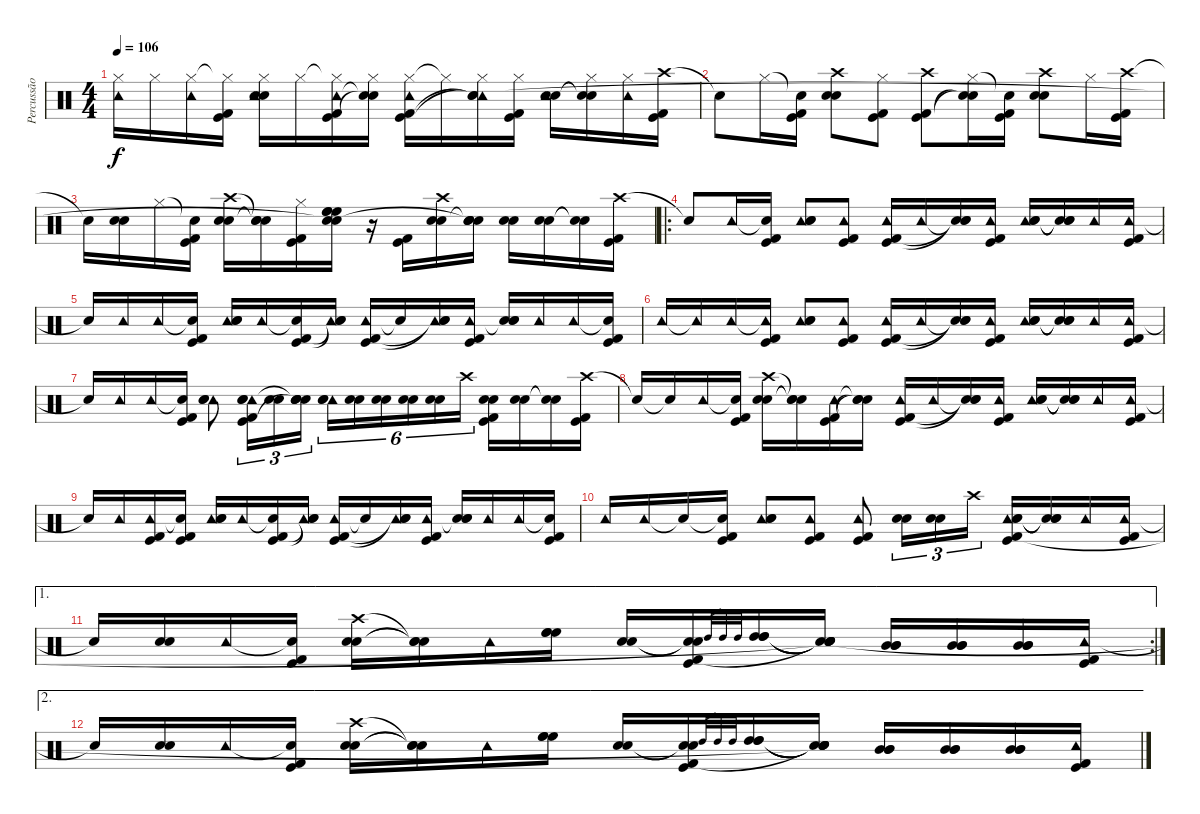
\track ("Percussão" "Percussão") {instrument percussion}
\staff {score}
\articulation defaults
\ts (4 4)
\tempo 106
\clef neutral
\ks c
("Hi-Hat (closed)"{t} "Tambourine (hit)").16{dy f} "Hi-Hat (closed)".16 ("Hi-Hat (closed)" "Tambourine (hit)").16 ("Hi-Hat (closed)"{t} "Kick (hit)" "Kick (hit) 2").16 ("Hi-Hat (closed)" "Electric Snare (hit)" "Snare (hit) 2" "Tambourine (hit)").16 "Hi-Hat (closed)".16 ("Hi-Hat (closed)"{t} "Tambourine (hit)" "Kick (hit)" "Kick (hit) 2").16 ("Hi-Hat (closed)" "Snare (hit)"{t} "Snare (hit)"{t}).16 ("Hi-Hat (closed)" "Tambourine (hit)" "Kick (hit)" "Kick (hit) 2").16 "Hi-Hat (closed)"{t}.16 ("Hi-Hat (closed)" "Tambourine (hit)" "Snare (hit)"{t} "Snare (hit)"{t}).16 ("Hi-Hat (closed)" "Kick (hit) 2" "Kick (hit)").16 ("Electric Snare (hit)" "Snare (hit) 2" "Tambourine (hit)").16 ("Hi-Hat (closed)" "Snare (hit)"{t} "Snare (hit)"{t}).16 ("Hi-Hat (closed)" "Tambourine (hit)").16 ("Crash high (hit)" "Kick (hit)" "Kick (hit) 2").16 |
"Snare (hit)"{t}.8 "Hi-Hat (closed)".16 ("Snare (hit)"{t} "Kick (hit)" "Kick (hit) 2").16 ("Crash high (hit)" "Electric Snare (hit)" "Snare (hit) 2").8 ("Hi-Hat (closed)" "Kick (hit) 2" "Kick (hit)").8 ("Crash high (hit)" "Kick (hit) 2" "Kick (hit)").8 ("Hi-Hat (closed)" "Snare (hit)"{t} "Snare (hit)"{t}).16 ("Snare (hit)"{t} "Kick (hit) 2" "Kick (hit)").16 ("Crash high (hit)" "Electric Snare (hit)" "Snare (hit) 2").8 "Hi-Hat (closed)".16 ("Crash high (hit)" "Kick (hit)" "Kick (hit) 2").16 |
"Snare (hit)"{t}.16 ("Electric Snare (hit)" "Snare (hit) 2").16 "Hi-Hat (closed)".16 ("Snare (hit)"{t} "Kick (hit) 2" "Kick (hit)").16 ("Crash high (hit)" "Electric Snare (hit)" "Snare (hit) 2").16 ("Snare (hit)"{t} "Snare (hit)"{t} "Snare (hit)"{t}).16 ("Hi-Hat (closed)" "Kick (hit)" "Kick (hit) 2").16 ("High Floor Tom (hit)" "High Floor Tom (hit)" "High Floor Tom (hit)" "Snare (hit)"{t} "Snare (hit)").16 r.16 ("Kick (hit) 2" "Kick (hit)").16 ("Crash high (hit)" "Electric Snare (hit)" "Snare (hit) 2").16 ("Electric Snare (hit)" "Snare (hit) 2" "Snare (hit)"{t} "Snare (hit)"{t}).16 ("Electric Snare (hit)" "Snare (hit) 2").16 ("Electric Snare (hit)" "Snare (hit) 2").16 ("Snare (hit)"{t} "Snare (hit)"{t}).16 ("Crash high (hit)" "Kick (hit) 2" "Kick (hit)").16 |
\ro "Snare (hit)"{t}.8 "Tambourine (hit)".16
("Snare (hit)"{t} "Kick (hit)" "Kick (hit) 2").16 ("Tambourine (hit)" "Electric Snare (hit)" "Snare (hit) 2").8 ("Tambourine (hit)" "Kick (hit)" "Kick (hit) 2").8 ("Tambourine (hit)" "Kick (hit) 2" "Kick (hit)").16 "Tambourine (hit)".16 ("Snare (hit)"{t} "Snare (hit)"{t} "Snare (hit)"{t}).16 ("Tambourine (hit)" "Kick (hit) 2" "Kick (hit)").16 ("Tambourine (hit)" "Electric Snare (hit)" "Snare (hit) 2").16 ("Snare (hit)"{t} "Snare (hit)"{t} "Snare (hit)"{t}).16 "Tambourine (hit)".16 ("Tambourine (hit)" "Kick (hit)" "Kick (hit) 2").16 |
"Snare (hit)"{t}.16 "Tambourine (hit)".16 "Tambourine (hit)".16 ("Snare (hit)"{t} "Kick (hit)" "Kick (hit) 2").16 ("Tambourine (hit)" "Electric Snare (hit)" "Snare (hit) 2").16 "Tambourine (hit)".16 ("Snare (hit)"{t} "Kick (hit) 2" "Kick (hit)").16 ("Tambourine (hit)" "Snare (hit)"{t} "Snare (hit)"{t}).16 ("Tambourine (hit)" "Kick (hit)" "Kick (hit) 2").16 "Snare (hit)"{t}.16 ("Tambourine (hit)" "Snare (hit)"{t} "Snare (hit)"{t}).16 ("Tambourine (hit)" "Kick (hit) 2" "Kick (hit)").16 ("Snare (hit)"{t} "Electric Snare (hit)" "Snare (hit) 2").16 "Tambourine (hit)".16 "Tambourine (hit)".16 ("Snare (hit)"{t} "Kick (hit) 2" "Kick (hit)").16 |
"Tambourine (hit)".16 "Tambourine (hit)"{t}.16 "Tambourine (hit)".16 ("Tambourine (hit)"{t} "Kick (hit)" "Kick (hit) 2").16 ("Tambourine (hit)" "Electric Snare (hit)" "Snare (hit) 2").8 ("Tambourine (hit)" "Kick (hit)" "Kick (hit) 2").8 ("Tambourine (hit)" "Kick (hit)" "Kick (hit) 2").16 "Tambourine (hit)".16 ("Snare (hit)"{t} "Snare (hit)"{t} "Snare (hit)"{t}).16 ("Tambourine (hit)" "Kick (hit) 2" "Kick (hit)").16 ("Tambourine (hit)" "Electric Snare (hit)" "Snare (hit) 2").16 ("Snare (hit)"{t} "Snare (hit)"{t} "Snare (hit)"{t}).16 "Tambourine (hit)".16 ("Tambourine (hit)" "Kick (hit)" "Kick (hit) 2").16 |
"Snare (hit)"{t}.16 "Tambourine (hit)".16 "Tambourine (hit)".16 ("Snare (hit)"{t} "Kick (hit) 2" "Kick (hit)").16 ("Tambourine (hit)" "Electric Snare (hit)" "Snare (hit) 2").8 ("Tambourine (hit)" "Electric Snare (hit)" "Snare (hit) 2" "Kick (hit)" "Kick (hit) 2").16{tu (3 2)} ("Electric Snare (hit)" "Snare (hit) 2").16{tu (3 2)} ("Electric Snare (hit)" "Snare (hit) 2" "Snare (hit)"{t} "Snare (hit)"{t}).16{tu (3 2)} ("Tambourine (hit)" "Electric Snare (hit)" "Snare (hit) 2").16{tu (6 4)} ("Electric Snare (hit)" "Snare (hit) 2").16{tu (6 4)} ("Electric Snare (hit)" "Snare (hit) 2").16{tu (6 4)} ("Electric Snare (hit)" "Snare (hit) 2").16{tu (6 4)} ("Electric Snare (hit)" "Snare (hit) 2").16{tu (6 4)} "Crash high (hit)".16{tu (6 4)} ("Electric Snare (hit)" "Snare (hit) 2" "Kick (hit)" "Kick (hit) 2").16 ("Electric Snare (hit)" "Snare (hit) 2").16 ("Snare (hit)"{t} "Snare (hit)"{t}).16 ("Crash high (hit)" "Kick (hit) 2" "Kick (hit)").16 |
"Snare (hit)"{t}.16 "Snare (hit)"{t}.16 "Tambourine (hit)".16 ("Snare (hit)"{t} "Kick (hit)" "Kick (hit) 2").16 ("Crash high (hit)" "Electric Snare (hit)" "Snare (hit) 2").16 ("Snare (hit)"{t} "Snare (hit)"{t} "Snare (hit)"{t}).16 ("Tambourine (hit)" "Kick (hit) 2" "Kick (hit)").16 ("Snare (hit)"{t} "Snare (hit)"{t} "Snare (hit)"{t}).16 ("Tambourine (hit)" "Kick (hit)" "Kick (hit) 2").16 "Tambourine (hit)".16 ("Snare (hit)"{t} "Snare (hit)"{t} "Snare (hit)"{t}).16 ("Tambourine (hit)" "Kick (hit) 2" "Kick (hit)").16 ("Tambourine (hit)" "Electric Snare (hit)" "Snare (hit) 2").16 ("Snare (hit)"{t} "Snare (hit)"{t} "Snare (hit)"{t}).16 "Tambourine (hit)".16 ("Tambourine (hit)" "Kick (hit)" "Kick (hit) 2").16 |
"Snare (hit)"{t}.16 "Tambourine (hit)".16 ("Tambourine (hit)" "Kick (hit)" "Kick (hit) 2").16 ("Snare (hit)"{t} "Kick (hit)" "Kick (hit) 2").16 ("Tambourine (hit)" "Electric Snare (hit)" "Snare (hit) 2").16 "Tambourine (hit)".16 ("Snare (hit)"{t} "Kick (hit) 2" "Kick (hit)").16 ("Tambourine (hit)" "Snare (hit)"{t} "Snare (hit)"{t}).16 ("Tambourine (hit)" "Kick (hit)" "Kick (hit) 2").16 "Snare (hit)"{t}.16 ("Tambourine (hit)" "Snare (hit)"{t} "Snare (hit)"{t}).16 ("Tambourine (hit)" "Kick (hit)" "Kick (hit) 2").16 ("Snare (hit)"{t} "Electric Snare (hit)" "Snare (hit) 2").16 "Tambourine (hit)".16 "Tambourine (hit)".16 ("Snare (hit)"{t} "Kick (hit)" "Kick (hit) 2").16 |
"Tambourine (hit)".16 "Tambourine (hit)".16 "Snare (hit)"{t}.16 ("Snare (hit)"{t} "Kick (hit)" "Kick (hit) 2").16 ("Tambourine (hit)" "Electric Snare (hit)" "Snare (hit) 2").8 ("Tambourine (hit)" "Kick (hit) 2" "Kick (hit)").8 ("Tambourine (hit)" "Kick (hit) 2" "Kick (hit)").8 ("Electric Snare (hit)" "Snare (hit) 2").16{tu (3 2)} ("Electric Snare (hit)" "Snare (hit) 2").16{tu (3 2)} "Crash high (hit)".16{tu (3 2)} ("Tambourine (hit)" "Electric Snare (hit)" "Snare (hit) 2" "Kick (hit)" "Kick (hit) 2").16 ("Snare (hit)"{t} "Snare (hit)"{t} "Snare (hit)"{t}).16 "Tambourine (hit)".16 ("Tambourine (hit)" "Kick (hit)" "Kick (hit) 2").16 |
\ae 1
\rc 2 "Snare (hit)"{t}.16
("Electric Snare (hit)" "Snare (hit) 2").16 "Tambourine (hit)".16 ("Snare (hit)"{t} "Kick (hit)" "Kick (hit) 2").16 ("Crash high (hit)" "Electric Snare (hit)" "Snare (hit) 2").16 ("Snare (hit)"{t} "Snare (hit)"{t} "Snare (hit)"{t}).16 "Tambourine (hit)".16 ("High Floor Tom (hit)" "High Floor Tom (hit)" "High Floor Tom (hit)").16 ("Electric Snare (hit)" "Snare (hit) 2").16 ("Snare (hit)"{t} "Snare (hit)"{t} "Kick (hit)" "Kick (hit) 2").16 "High Tom (hit)".32{gr} "High Tom (hit)".32{gr} "High Tom (hit)".32{gr} ("High Tom (hit)" "High Tom (hit)" "High Tom (hit)").16 ("Snare (hit)"{t} "Snare (hit)"{t} "Snare (hit)"{t} "Snare (hit)"{t} "Snare (hit)"{t}).16 ("Mid Tom (hit)" "Mid Tom (hit)" "Mid Tom (hit)").16 ("Mid Tom (hit)" "Mid Tom (hit)" "Mid Tom (hit)").16 ("Mid Tom (hit)" "Mid Tom (hit)" "Mid Tom (hit)").16 ("Tambourine (hit)" "Kick (hit)" "Kick (hit) 2").16 |
\ae 2 "Snare (hit)"{t}.16
("Electric Snare (hit)" "Snare (hit) 2").16 "Tambourine (hit)".16 ("Snare (hit)"{t} "Kick (hit)" "Kick (hit) 2").16 ("Crash high (hit)" "Electric Snare (hit)" "Snare (hit) 2").16 ("Snare (hit)"{t} "Snare (hit)"{t} "Snare (hit)"{t}).16 "Tambourine (hit)".16 ("High Floor Tom (hit)" "High Floor Tom (hit)" "High Floor Tom (hit)").16 ("Electric Snare (hit)" "Snare (hit) 2").16 ("Snare (hit)"{t} "Snare (hit)"{t} "Kick (hit)" "Kick (hit) 2").16 "High Tom (hit)".32{gr} "High Tom (hit)".32{gr} "High Tom (hit)".32{gr} ("High Tom (hit)" "High Tom (hit)" "High Tom (hit)").16 ("Snare (hit)"{t} "Snare (hit)"{t} "Snare (hit)"{t} "Snare (hit)"{t} "Snare (hit)"{t}).16 ("Mid Tom (hit)" "Mid Tom (hit)" "Mid Tom (hit)").16 ("Mid Tom (hit)" "Mid Tom (hit)" "Mid Tom (hit)").16 ("Mid Tom (hit)" "Mid Tom (hit)" "Mid Tom (hit)").16 ("Tambourine (hit)" "Kick (hit)" "Kick (hit) 2").16
